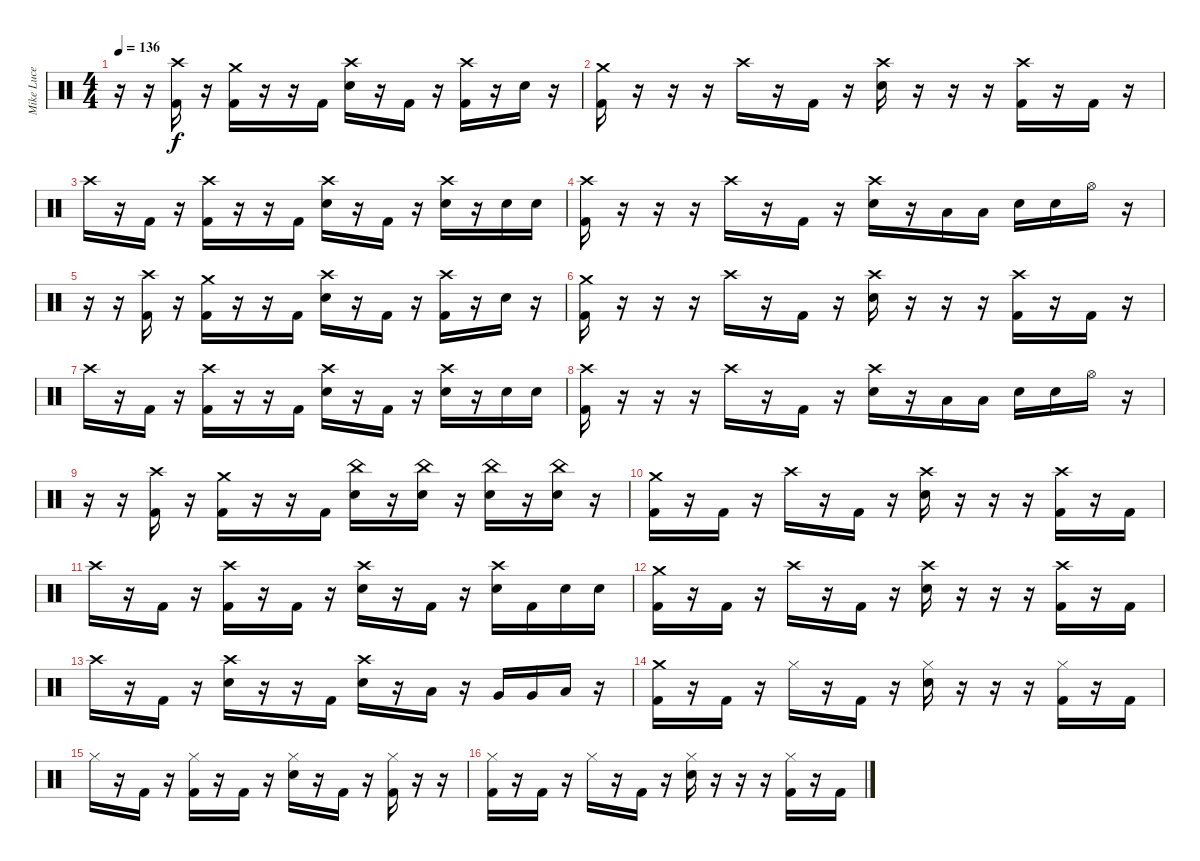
\track ("Mike Luce" "Mike Luce") {instrument percussion}
\staff {score}
\articulation defaults
\ts (4 4)
\tempo 136
\clef neutral
\ks c
r.16{dy f} r.16 ("Crash high (hit)" "Kick (hit) 2").16 r.16 ("Crash medium (hit)" "Kick (hit) 2").16 r.16 r.16 "Kick (hit) 2".16 ("Crash high (hit)" "Electric Snare (hit)").16 r.16 "Kick (hit) 2".16 r.16 ("Crash high (hit)" "Kick (hit) 2").16 r.16 "Electric Snare (hit)".16 r.16 |
("Crash medium (hit)" "Kick (hit) 2").16 r.16 r.16 r.16 "Crash high (hit)".16 r.16 "Kick (hit) 2".16 r.16 ("Crash high (hit)" "Electric Snare (hit)").16 r.16 r.16 r.16 ("Crash high (hit)" "Kick (hit) 2").16 r.16 "Kick (hit) 2".16 r.16 |
"Crash high (hit)".16 r.16 "Kick (hit) 2".16 r.16 ("Crash high (hit)" "Kick (hit) 2").16 r.16 r.16 "Kick (hit) 2".16 ("Crash high (hit)" "Electric Snare (hit)").16 r.16 "Kick (hit) 2".16 r.16 ("Crash high (hit)" "Electric Snare (hit)").16 r.16 "Electric Snare (hit)".16 "Electric Snare (hit)".16 |
("Crash high (hit)" "Kick (hit) 2").16 r.16 r.16 r.16 "Crash high (hit)".16 r.16 "Kick (hit) 2".16 r.16 ("Crash high (hit)" "Electric Snare (hit)").16 r.16 "Low Tom (hit)".16 "Low Tom (hit)".16 "Electric Snare (hit)".16 "Electric Snare (hit)".16 "Hi-Hat (open)".16 r.16 |
r.16 r.16 ("Crash high (hit)" "Kick (hit) 2").16 r.16 ("Crash medium (hit)" "Kick (hit) 2").16 r.16 r.16 "Kick (hit) 2".16 ("Crash high (hit)" "Electric Snare (hit)").16 r.16 "Kick (hit) 2".16 r.16 ("Crash high (hit)" "Kick (hit) 2").16 r.16 "Electric Snare (hit)".16 r.16 |
("Crash medium (hit)" "Kick (hit) 2").16 r.16 r.16 r.16 "Crash high (hit)".16 r.16 "Kick (hit) 2".16 r.16 ("Crash high (hit)" "Electric Snare (hit)").16 r.16 r.16 r.16 ("Crash high (hit)" "Kick (hit) 2").16 r.16 "Kick (hit) 2".16 r.16 |
"Crash high (hit)".16 r.16 "Kick (hit) 2".16 r.16 ("Crash high (hit)" "Kick (hit) 2").16 r.16 r.16 "Kick (hit) 2".16 ("Crash high (hit)" "Electric Snare (hit)").16 r.16 "Kick (hit) 2".16 r.16 ("Crash high (hit)" "Electric Snare (hit)").16 r.16 "Electric Snare (hit)".16 "Electric Snare (hit)".16 |
("Crash high (hit)" "Kick (hit) 2").16 r.16 r.16 r.16 "Crash high (hit)".16 r.16 "Kick (hit) 2".16 r.16 ("Crash high (hit)" "Electric Snare (hit)").16 r.16 "Low Tom (hit)".16 "Low Tom (hit)".16 "Electric Snare (hit)".16 "Electric Snare (hit)".16 "Hi-Hat (open)".16 r.16 |
r.16 r.16 ("Crash high (hit)" "Kick (hit) 2").16 r.16 ("Crash medium (hit)" "Kick (hit) 2").16 r.16 r.16 "Kick (hit) 2".16 ("China (hit)" "Electric Snare (hit)").16 r.16 ("China (hit)" "Electric Snare (hit)").16 r.16 ("China (hit)" "Electric Snare (hit)").16 r.16 ("China (hit)" "Electric Snare (hit)").16 r.16 |
("Crash medium (hit)" "Kick (hit) 2").16 r.16 "Kick (hit) 2".16 r.16 "Crash high (hit)".16 r.16 "Kick (hit) 2".16 r.16 ("Crash high (hit)" "Electric Snare (hit)").16 r.16 r.16 r.16 ("Crash high (hit)" "Kick (hit) 2").16 r.16 "Kick (hit) 2".16 |
"Crash high (hit)".16 r.16 "Kick (hit) 2".16 r.16 ("Crash high (hit)" "Kick (hit) 2").16 r.16 "Kick (hit) 2".16 r.16 ("Crash high (hit)" "Electric Snare (hit)").16 r.16 "Kick (hit) 2".16 r.16 ("Crash high (hit)" "Electric Snare (hit)").16 "Kick (hit) 2".16 "Electric Snare (hit)".16 "Electric Snare (hit)".16 |
("Crash medium (hit)" "Kick (hit) 2").16 r.16 "Kick (hit) 2".16 r.16 "Crash high (hit)".16 r.16 "Kick (hit) 2".16 r.16 ("Crash high (hit)" "Electric Snare (hit)").16 r.16 r.16 r.16 ("Crash high (hit)" "Kick (hit) 2").16 r.16 "Kick (hit) 2".16 |
"Crash high (hit)".16 r.16 "Kick (hit) 2".16 r.16 ("Crash high (hit)" "Electric Snare (hit)").16 r.16 r.16 "Kick (hit) 2".16 ("Crash high (hit)" "Electric Snare (hit)").16 r.16 "Low Tom (hit)".16 r.16 "Very Low Tom (hit)".16 "Very Low Tom (hit)".16 "Low Floor Tom (hit)".16 r.16 |
("Crash medium (hit)" "Kick (hit) 2").16 r.16 "Kick (hit) 2".16 r.16 "Hi-Hat (closed)".16 r.16 "Kick (hit) 2".16 r.16 ("Hi-Hat (closed)" "Electric Snare (hit)").16 r.16 r.16 r.16 ("Hi-Hat (closed)" "Kick (hit) 2").16 r.16 "Kick (hit) 2".16 |
"Hi-Hat (closed)".16 r.16 "Kick (hit) 2".16 r.16 ("Hi-Hat (closed)" "Kick (hit) 2").16 r.16 "Kick (hit) 2".16 r.16 ("Hi-Hat (closed)" "Electric Snare (hit)").16 r.16 "Kick (hit) 2".16 r.16 ("Hi-Hat (closed)" "Kick (hit) 2").16 r.16 r.16 |
("Hi-Hat (closed)" "Kick (hit) 2").16 r.16 "Kick (hit) 2".16 r.16 "Hi-Hat (closed)".16 r.16 "Kick (hit) 2".16 r.16 ("Hi-Hat (closed)" "Electric Snare (hit)").16 r.16 r.16 r.16 ("Hi-Hat (closed)" "Kick (hit) 2").16 r.16 "Kick (hit) 2".16
